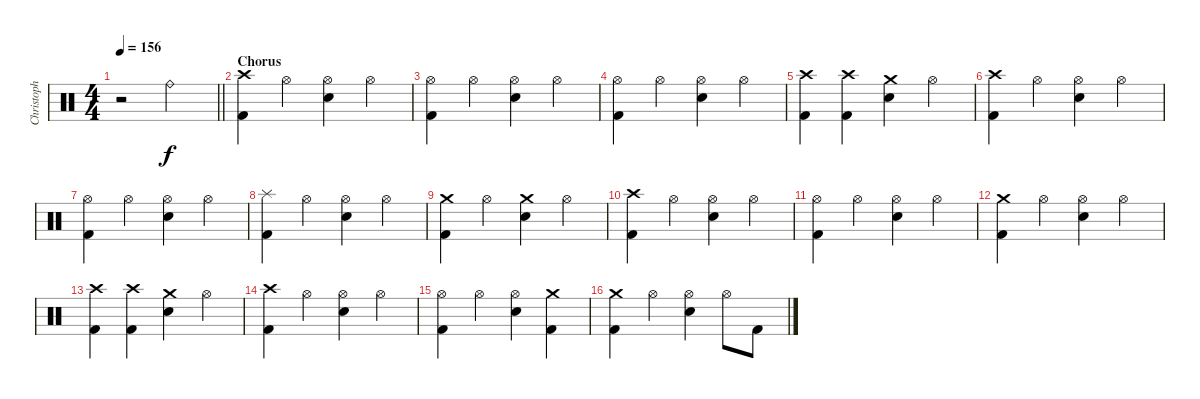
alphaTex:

\track ("Christoph Schneider" "Christoph ") {instrument percussion}
\staff {score}
\articulation defaults
\ts (4 4)
\tempo 156
\clef neutral
\barLineRight lightlight
\ks c
r.2{dy f} "Ride (bell)".2 |
\section ("" "Chorus")
("Crash high (hit)" "Kick (hit) 2").4 "Hi-Hat (open)".4 ("Hi-Hat (open)" "Snare (hit) 2").4 "Hi-Hat (open)".4 |
("Hi-Hat (open)" "Kick (hit) 2").4 "Hi-Hat (open)".4 ("Hi-Hat (open)" "Snare (hit) 2").4 "Hi-Hat (open)".4 |
("Hi-Hat (open)" "Kick (hit) 2").4 "Hi-Hat (open)".4 ("Hi-Hat (open)" "Snare (hit) 2").4 "Hi-Hat (open)".4 |
("Crash high (hit)" "Kick (hit) 2").4 ("Crash high (hit)" "Kick (hit) 2").4 ("Crash medium (hit)" "Snare (hit) 2").4 "Hi-Hat (open)".4 |
("Crash high (hit)" "Kick (hit) 2").4 "Hi-Hat (open)".4 ("Hi-Hat (open)" "Snare (hit) 2").4 "Hi-Hat (open)".4 |
("Hi-Hat (open)" "Kick (hit) 2").4 "Hi-Hat (open)".4 ("Hi-Hat (open)" "Snare (hit) 2").4 "Hi-Hat (open)".4 |
("Splash (hit)" "Kick (hit) 2").4 "Hi-Hat (open)".4 ("Hi-Hat (open)" "Snare (hit) 2").4 "Hi-Hat (open)".4 |
("Crash medium (hit)" "Kick (hit) 2").4 "Hi-Hat (open)".4 ("Crash medium (hit)" "Snare (hit) 2").4 "Hi-Hat (open)".4 |
("Crash high (hit)" "Kick (hit) 2").4 "Hi-Hat (open)".4 ("Hi-Hat (open)" "Snare (hit) 2").4 "Hi-Hat (open)".4 |
("Hi-Hat (open)" "Kick (hit) 2").4 "Hi-Hat (open)".4 ("Hi-Hat (open)" "Snare (hit) 2").4 "Hi-Hat (open)".4 |
("Crash medium (hit)" "Kick (hit) 2").4 "Hi-Hat (open)".4 ("Hi-Hat (open)" "Snare (hit) 2").4 "Hi-Hat (open)".4 |
("Crash high (hit)" "Kick (hit) 2").4 ("Crash high (hit)" "Kick (hit) 2").4 ("Crash medium (hit)" "Snare (hit) 2").4 "Hi-Hat (open)".4 |
("Crash high (hit)" "Kick (hit) 2").4 "Hi-Hat (open)".4 ("Hi-Hat (open)" "Snare (hit) 2").4 "Hi-Hat (open)".4 |
("Hi-Hat (open)" "Kick (hit) 2").4 "Hi-Hat (open)".4 ("Hi-Hat (open)" "Snare (hit) 2").4 ("Crash medium (hit)" "Kick (hit) 2").4 |
("Crash medium (hit)" "Kick (hit) 2").4 "Hi-Hat (open)".4 ("Hi-Hat (open)" "Snare (hit) 2").4 "Hi-Hat (open)".8 "Kick (hit) 2".8
